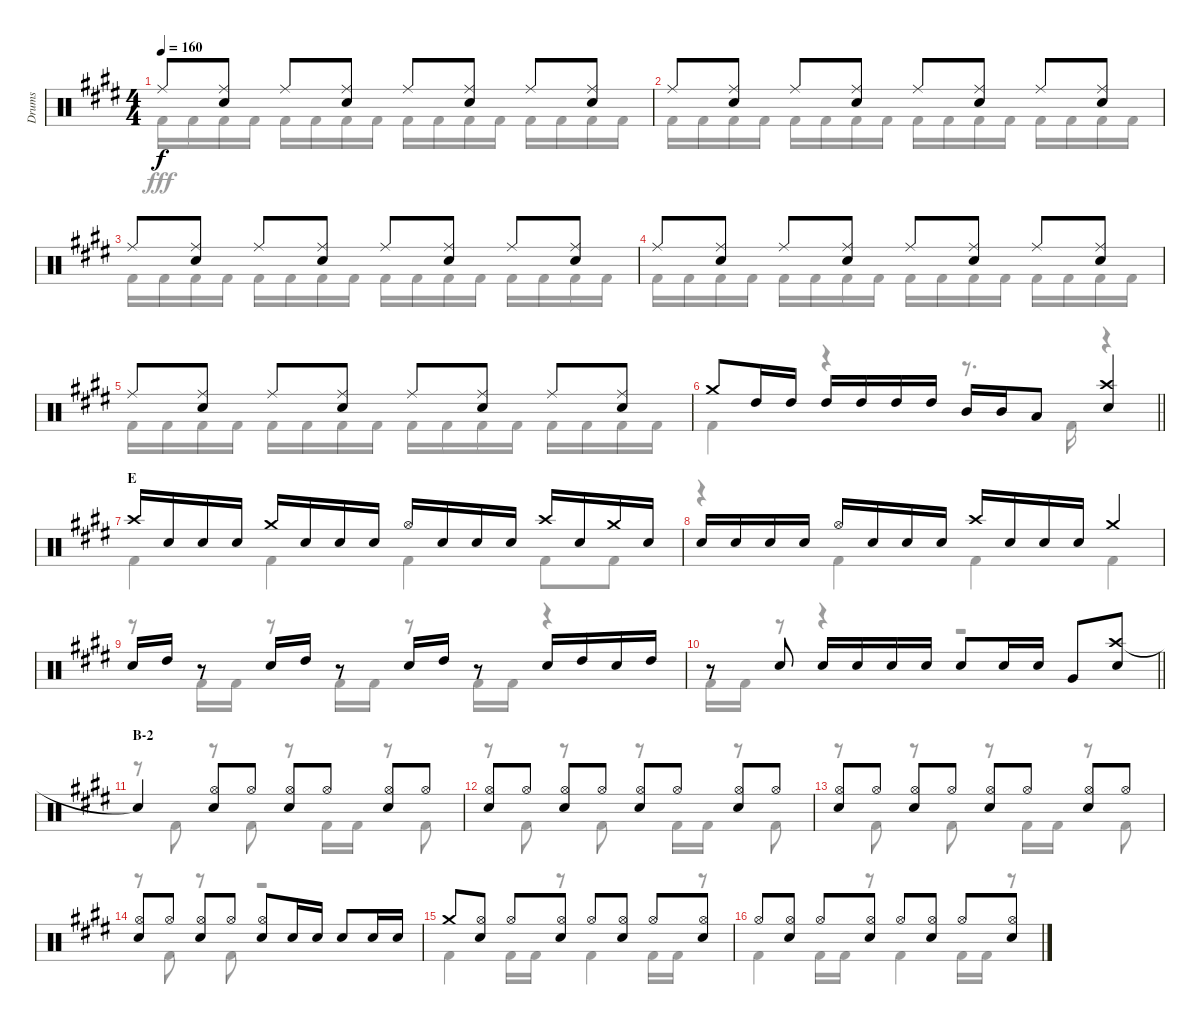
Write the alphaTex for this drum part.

\track ("Drums" "Drums") {instrument percussion}
\staff {score}
\articulation defaults
\voice
\ts (4 4)
\tempo 160
\clef neutral
\ks e "Ride (middle)".8{dy f}
("Ride (middle)" "Snare (hit) 2").8 "Ride (middle)".8 ("Ride (middle)" "Snare (hit) 2").8 "Ride (middle)".8 ("Ride (middle)" "Snare (hit) 2").8 "Ride (middle)".8 ("Ride (middle)" "Snare (hit) 2").8 |
"Ride (middle)".8 ("Ride (middle)" "Snare (hit) 2").8 "Ride (middle)".8 ("Ride (middle)" "Snare (hit) 2").8 "Ride (middle)".8 ("Ride (middle)" "Snare (hit) 2").8 "Ride (middle)".8 ("Ride (middle)" "Snare (hit) 2").8 |
"Ride (middle)".8 ("Ride (middle)" "Snare (hit) 2").8 "Ride (middle)".8 ("Ride (middle)" "Snare (hit) 2").8 "Ride (middle)".8 ("Ride (middle)" "Snare (hit) 2").8 "Ride (middle)".8 ("Ride (middle)" "Snare (hit) 2").8 |
"Ride (middle)".8 ("Ride (middle)" "Snare (hit) 2").8 "Ride (middle)".8 ("Ride (middle)" "Snare (hit) 2").8 "Ride (middle)".8 ("Ride (middle)" "Snare (hit) 2").8 "Ride (middle)".8 ("Ride (middle)" "Snare (hit) 2").8 |
"Ride (middle)".8 ("Ride (middle)" "Snare (hit) 2").8 "Ride (middle)".8 ("Ride (middle)" "Snare (hit) 2").8 "Ride (middle)".8 ("Ride (middle)" "Snare (hit) 2").8 "Ride (middle)".8 ("Ride (middle)" "Snare (hit) 2").8 |
\barLineRight lightlight "Crash medium (hit)".8 "High Tom (hit)".16 "High Tom (hit)".16 "High Tom (hit)".16 "High Tom (hit)".16 "High Tom (hit)".16 "High Tom (hit)".16 "Mid Tom (hit)".16 "Mid Tom (hit)".16 "Low Tom (hit)".8
("Crash high (hit)" "Snare (hit) 2").4 |
\section ("" "E")
"Crash high (hit)".16 "Snare (hit) 2".16 "Snare (hit) 2".16 "Snare (hit) 2".16 "Crash medium (hit)".16 "Snare (hit) 2".16 "Snare (hit) 2".16 "Snare (hit) 2".16 "Hi-Hat (open)".16 "Snare (hit) 2".16 "Snare (hit) 2".16 "Snare (hit) 2".16 "Crash high (hit)".16 "Snare (hit) 2".16 "Crash medium (hit)".16 "Snare (hit) 2".16 |
"Snare (hit) 2".16 "Snare (hit) 2".16 "Snare (hit) 2".16 "Snare (hit) 2".16 "Hi-Hat (open)".16 "Snare (hit) 2".16 "Snare (hit) 2".16 "Snare (hit) 2".16 "Crash high (hit)".16 "Snare (hit) 2".16 "Snare (hit) 2".16 "Snare (hit) 2".16 "Crash medium (hit)".4 |
"Snare (hit) 2".16 "High Tom (hit)".16 r.8 "Snare (hit) 2".16 "High Tom (hit)".16 r.8 "Snare (hit) 2".16 "High Tom (hit)".16 r.8 "Snare (hit) 2".16 "High Tom (hit)".16 "Snare (hit) 2".16 "High Tom (hit)".16 |
\barLineRight lightlight
r.8 "Snare (hit) 2".8 "Snare (hit) 2".16 "Snare (hit) 2".16 "Snare (hit) 2".16 "Snare (hit) 2".16 "Snare (hit) 2".8 "Snare (hit) 2".16 "Snare (hit) 2".16 "Very Low Tom (hit)".8 ("Crash high (hit)" "Snare (hit) 2").8 |
\section ("" "B-2")
"Snare (hit)"{t}.4 ("Hi-Hat (open)" "Snare (hit) 2").8 "Hi-Hat (open)".8 ("Hi-Hat (open)" "Snare (hit) 2").8 "Hi-Hat (open)".8 ("Hi-Hat (open)" "Snare (hit) 2").8 "Hi-Hat (open)".8 |
("Hi-Hat (open)" "Snare (hit) 2").8 "Hi-Hat (open)".8 ("Hi-Hat (open)" "Snare (hit) 2").8 "Hi-Hat (open)".8 ("Hi-Hat (open)" "Snare (hit) 2").8 "Hi-Hat (open)".8 ("Hi-Hat (open)" "Snare (hit) 2").8 "Hi-Hat (open)".8 |
("Hi-Hat (open)" "Snare (hit) 2").8 "Hi-Hat (open)".8 ("Hi-Hat (open)" "Snare (hit) 2").8 "Hi-Hat (open)".8 ("Hi-Hat (open)" "Snare (hit) 2").8 "Hi-Hat (open)".8 ("Hi-Hat (open)" "Snare (hit) 2").8 "Hi-Hat (open)".8 |
("Hi-Hat (open)" "Snare (hit) 2").8 "Hi-Hat (open)".8 ("Hi-Hat (open)" "Snare (hit) 2").8 "Hi-Hat (open)".8 ("Hi-Hat (open)" "Snare (hit) 2").8 "Snare (hit) 2".16 "Snare (hit) 2".16 "Snare (hit) 2".8 "Snare (hit) 2".16 "Snare (hit) 2".16 |
"Crash medium (hit)".8 ("Hi-Hat (open)" "Snare (hit) 2").8 "Hi-Hat (open)".8 ("Hi-Hat (open)" "Snare (hit) 2").8 "Hi-Hat (open)".8 ("Hi-Hat (open)" "Snare (hit) 2").8 "Hi-Hat (open)".8 ("Hi-Hat (open)" "Snare (hit) 2").8 |
"Hi-Hat (open)".8 ("Hi-Hat (open)" "Snare (hit) 2").8 "Hi-Hat (open)".8 ("Hi-Hat (open)" "Snare (hit) 2").8 "Hi-Hat (open)".8 ("Hi-Hat (open)" "Snare (hit) 2").8 "Hi-Hat (open)".8 ("Hi-Hat (open)" "Snare (hit) 2").8
\voice
\clef neutral
\ottava regular
\simile none
\ks e "Kick (hit) 2".16{dy fff} "Kick (hit) 2".16 "Kick (hit) 2".16 "Kick (hit) 2".16 "Kick (hit) 2".16 "Kick (hit) 2".16 "Kick (hit) 2".16 "Kick (hit) 2".16 "Kick (hit) 2".16 "Kick (hit) 2".16 "Kick (hit) 2".16 "Kick (hit) 2".16 "Kick (hit) 2".16 "Kick (hit) 2".16 "Kick (hit) 2".16 "Kick (hit) 2".16
|
"Kick (hit) 2".16 "Kick (hit) 2".16 "Kick (hit) 2".16 "Kick (hit) 2".16 "Kick (hit) 2".16 "Kick (hit) 2".16 "Kick (hit) 2".16 "Kick (hit) 2".16 "Kick (hit) 2".16 "Kick (hit) 2".16 "Kick (hit) 2".16 "Kick (hit) 2".16 "Kick (hit) 2".16 "Kick (hit) 2".16 "Kick (hit) 2".16 "Kick (hit) 2".16 |
"Kick (hit) 2".16 "Kick (hit) 2".16 "Kick (hit) 2".16 "Kick (hit) 2".16 "Kick (hit) 2".16 "Kick (hit) 2".16 "Kick (hit) 2".16 "Kick (hit) 2".16 "Kick (hit) 2".16 "Kick (hit) 2".16 "Kick (hit) 2".16 "Kick (hit) 2".16 "Kick (hit) 2".16 "Kick (hit) 2".16 "Kick (hit) 2".16 "Kick (hit) 2".16 |
"Kick (hit) 2".16 "Kick (hit) 2".16 "Kick (hit) 2".16 "Kick (hit) 2".16 "Kick (hit) 2".16 "Kick (hit) 2".16 "Kick (hit) 2".16 "Kick (hit) 2".16 "Kick (hit) 2".16 "Kick (hit) 2".16 "Kick (hit) 2".16 "Kick (hit) 2".16 "Kick (hit) 2".16 "Kick (hit) 2".16 "Kick (hit) 2".16 "Kick (hit) 2".16 |
"Kick (hit) 2".16 "Kick (hit) 2".16 "Kick (hit) 2".16 "Kick (hit) 2".16 "Kick (hit) 2".16 "Kick (hit) 2".16 "Kick (hit) 2".16 "Kick (hit) 2".16 "Kick (hit) 2".16 "Kick (hit) 2".16 "Kick (hit) 2".16 "Kick (hit) 2".16 "Kick (hit) 2".16 "Kick (hit) 2".16 "Kick (hit) 2".16 "Kick (hit) 2".16 |
\barLineRight lightlight "Kick (hit) 2".4
r.4 r.8{d} "Kick (hit) 2".16 r.4 |
"Kick (hit) 2".4 "Kick (hit) 2".4 "Kick (hit) 2".4 "Kick (hit) 2".8 "Kick (hit) 2".8 |
r.4 "Kick (hit) 2".4 "Kick (hit) 2".4 "Kick (hit) 2".4 |
r.8 "Kick (hit) 2".16 "Kick (hit) 2".16 r.8 "Kick (hit) 2".16 "Kick (hit) 2".16 r.8 "Kick (hit) 2".16 "Kick (hit) 2".16 r.4 |
\barLineRight lightlight "Kick (hit) 2".16 "Kick (hit) 2".16
r.8 r.4 r.2 |
r.8 "Kick (hit) 2".8 r.8 "Kick (hit) 2".8 r.8 "Kick (hit) 2".16 "Kick (hit) 2".16 r.8 "Kick (hit) 2".8 |
r.8 "Kick (hit) 2".8 r.8 "Kick (hit) 2".8 r.8 "Kick (hit) 2".16 "Kick (hit) 2".16 r.8 "Kick (hit) 2".8 |
r.8 "Kick (hit) 2".8 r.8 "Kick (hit) 2".8 r.8 "Kick (hit) 2".16 "Kick (hit) 2".16 r.8 "Kick (hit) 2".8 |
r.8 "Kick (hit) 2".8 r.8 "Kick (hit) 2".8 r.2 |
"Kick (hit) 2".4 "Kick (hit) 2".16 "Kick (hit) 2".16 r.8 "Kick (hit) 2".4 "Kick (hit) 2".16 "Kick (hit) 2".16 r.8 |
"Kick (hit) 2".4 "Kick (hit) 2".16 "Kick (hit) 2".16 r.8 "Kick (hit) 2".4 "Kick (hit) 2".16 "Kick (hit) 2".16 r.8
